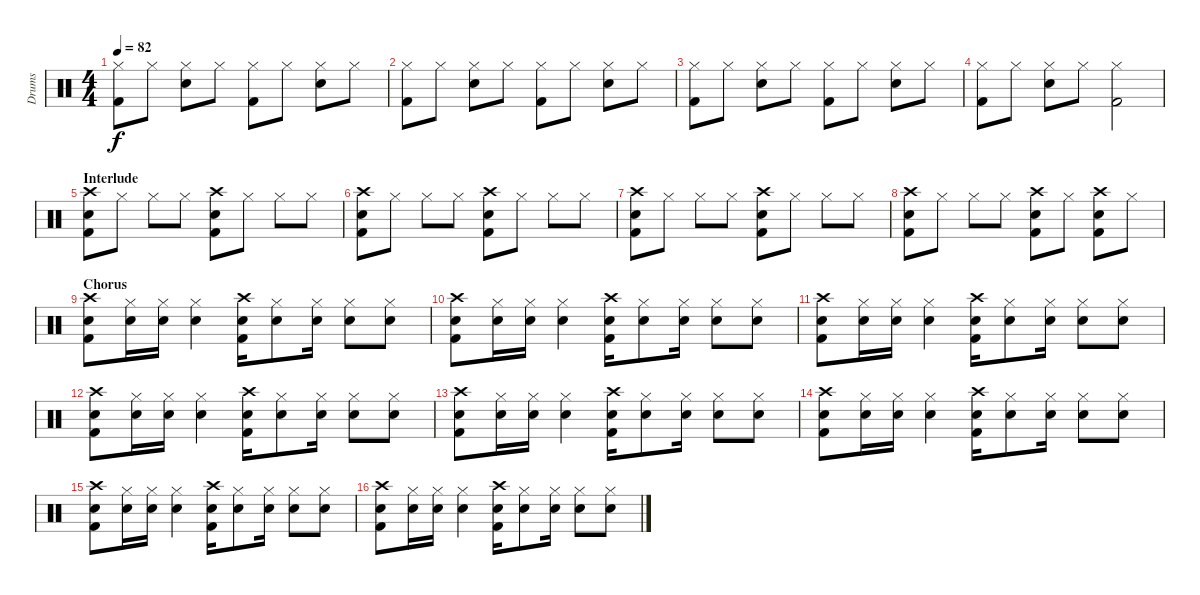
\track ("Drums" "Drums") {instrument percussion}
\staff {score}
\articulation defaults
\ts (4 4)
\tempo 82
\clef neutral
\ks c
("Hi-Hat (closed)" "Kick (hit) 2").8{dy f} "Hi-Hat (closed)".8 ("Hi-Hat (closed)" "Snare (hit) 2").8 "Hi-Hat (closed)".8 ("Hi-Hat (closed)" "Kick (hit) 2").8 "Hi-Hat (closed)".8 ("Hi-Hat (closed)" "Snare (hit) 2").8 "Hi-Hat (closed)".8 |
("Hi-Hat (closed)" "Kick (hit) 2").8 "Hi-Hat (closed)".8 ("Hi-Hat (closed)" "Snare (hit) 2").8 "Hi-Hat (closed)".8 ("Hi-Hat (closed)" "Kick (hit) 2").8 "Hi-Hat (closed)".8 ("Hi-Hat (closed)" "Snare (hit) 2").8 "Hi-Hat (closed)".8 |
("Hi-Hat (closed)" "Kick (hit) 2").8 "Hi-Hat (closed)".8 ("Hi-Hat (closed)" "Snare (hit) 2").8 "Hi-Hat (closed)".8 ("Hi-Hat (closed)" "Kick (hit) 2").8 "Hi-Hat (closed)".8 ("Hi-Hat (closed)" "Snare (hit) 2").8 "Hi-Hat (closed)".8 |
("Hi-Hat (closed)" "Kick (hit) 2").8 "Hi-Hat (closed)".8 ("Hi-Hat (closed)" "Snare (hit) 2").8 "Hi-Hat (closed)".8 ("Hi-Hat (closed)" "Kick (hit) 2").2 |
\section ("" "Interlude")
("Crash high (hit)" "Snare (hit) 2" "Kick (hit) 2").8 "Hi-Hat (closed)".8 "Hi-Hat (closed)".8 "Hi-Hat (closed)".8 ("Crash high (hit)" "Snare (hit) 2" "Kick (hit) 2").8 "Hi-Hat (closed)".8 "Hi-Hat (closed)".8 "Hi-Hat (closed)".8 |
("Crash high (hit)" "Snare (hit) 2" "Kick (hit) 2").8 "Hi-Hat (closed)".8 "Hi-Hat (closed)".8 "Hi-Hat (closed)".8 ("Crash high (hit)" "Snare (hit) 2" "Kick (hit) 2").8 "Hi-Hat (closed)".8 "Hi-Hat (closed)".8 "Hi-Hat (closed)".8 |
("Crash high (hit)" "Snare (hit) 2" "Kick (hit) 2").8 "Hi-Hat (closed)".8 "Hi-Hat (closed)".8 "Hi-Hat (closed)".8 ("Crash high (hit)" "Snare (hit) 2" "Kick (hit) 2").8 "Hi-Hat (closed)".8 "Hi-Hat (closed)".8 "Hi-Hat (closed)".8 |
("Crash high (hit)" "Snare (hit) 2" "Kick (hit) 2").8 "Hi-Hat (closed)".8 "Hi-Hat (closed)".8 "Hi-Hat (closed)".8 ("Crash high (hit)" "Snare (hit) 2" "Kick (hit) 2").8 "Hi-Hat (closed)".8 ("Crash high (hit)" "Snare (hit) 2" "Kick (hit) 2").8 "Hi-Hat (closed)".8 |
\section ("" "Chorus")
("Crash high (hit)" "Snare (hit) 2" "Kick (hit) 2").8 ("Hi-Hat (closed)" "Snare (hit) 2").16 ("Hi-Hat (closed)" "Snare (hit) 2").16 ("Hi-Hat (closed)" "Snare (hit) 2").4 ("Crash high (hit)" "Snare (hit) 2" "Kick (hit) 2").16 ("Hi-Hat (closed)" "Snare (hit) 2").8 ("Hi-Hat (closed)" "Snare (hit) 2").16 ("Hi-Hat (closed)" "Snare (hit) 2").8 ("Hi-Hat (closed)" "Snare (hit) 2").8 |
("Crash high (hit)" "Snare (hit) 2" "Kick (hit) 2").8 ("Hi-Hat (closed)" "Snare (hit) 2").16 ("Hi-Hat (closed)" "Snare (hit) 2").16 ("Hi-Hat (closed)" "Snare (hit) 2").4 ("Crash high (hit)" "Snare (hit) 2" "Kick (hit) 2").16 ("Hi-Hat (closed)" "Snare (hit) 2").8 ("Hi-Hat (closed)" "Snare (hit) 2").16 ("Hi-Hat (closed)" "Snare (hit) 2").8 ("Hi-Hat (closed)" "Snare (hit) 2").8 |
("Crash high (hit)" "Snare (hit) 2" "Kick (hit) 2").8 ("Hi-Hat (closed)" "Snare (hit) 2").16 ("Hi-Hat (closed)" "Snare (hit) 2").16 ("Hi-Hat (closed)" "Snare (hit) 2").4 ("Crash high (hit)" "Snare (hit) 2" "Kick (hit) 2").16 ("Hi-Hat (closed)" "Snare (hit) 2").8 ("Hi-Hat (closed)" "Snare (hit) 2").16 ("Hi-Hat (closed)" "Snare (hit) 2").8 ("Hi-Hat (closed)" "Snare (hit) 2").8 |
("Crash high (hit)" "Snare (hit) 2" "Kick (hit) 2").8 ("Hi-Hat (closed)" "Snare (hit) 2").16 ("Hi-Hat (closed)" "Snare (hit) 2").16 ("Hi-Hat (closed)" "Snare (hit) 2").4 ("Crash high (hit)" "Snare (hit) 2" "Kick (hit) 2").16 ("Hi-Hat (closed)" "Snare (hit) 2").8 ("Hi-Hat (closed)" "Snare (hit) 2").16 ("Hi-Hat (closed)" "Snare (hit) 2").8 ("Hi-Hat (closed)" "Snare (hit) 2").8 |
("Crash high (hit)" "Snare (hit) 2" "Kick (hit) 2").8 ("Hi-Hat (closed)" "Snare (hit) 2").16 ("Hi-Hat (closed)" "Snare (hit) 2").16 ("Hi-Hat (closed)" "Snare (hit) 2").4 ("Crash high (hit)" "Snare (hit) 2" "Kick (hit) 2").16 ("Hi-Hat (closed)" "Snare (hit) 2").8 ("Hi-Hat (closed)" "Snare (hit) 2").16 ("Hi-Hat (closed)" "Snare (hit) 2").8 ("Hi-Hat (closed)" "Snare (hit) 2").8 |
("Crash high (hit)" "Snare (hit) 2" "Kick (hit) 2").8 ("Hi-Hat (closed)" "Snare (hit) 2").16 ("Hi-Hat (closed)" "Snare (hit) 2").16 ("Hi-Hat (closed)" "Snare (hit) 2").4 ("Crash high (hit)" "Snare (hit) 2" "Kick (hit) 2").16 ("Hi-Hat (closed)" "Snare (hit) 2").8 ("Hi-Hat (closed)" "Snare (hit) 2").16 ("Hi-Hat (closed)" "Snare (hit) 2").8 ("Hi-Hat (closed)" "Snare (hit) 2").8 |
("Crash high (hit)" "Snare (hit) 2" "Kick (hit) 2").8 ("Hi-Hat (closed)" "Snare (hit) 2").16 ("Hi-Hat (closed)" "Snare (hit) 2").16 ("Hi-Hat (closed)" "Snare (hit) 2").4 ("Crash high (hit)" "Snare (hit) 2" "Kick (hit) 2").16 ("Hi-Hat (closed)" "Snare (hit) 2").8 ("Hi-Hat (closed)" "Snare (hit) 2").16 ("Hi-Hat (closed)" "Snare (hit) 2").8 ("Hi-Hat (closed)" "Snare (hit) 2").8 |
("Crash high (hit)" "Snare (hit) 2" "Kick (hit) 2").8 ("Hi-Hat (closed)" "Snare (hit) 2").16 ("Hi-Hat (closed)" "Snare (hit) 2").16 ("Hi-Hat (closed)" "Snare (hit) 2").4 ("Crash high (hit)" "Snare (hit) 2" "Kick (hit) 2").16 ("Hi-Hat (closed)" "Snare (hit) 2").8 ("Hi-Hat (closed)" "Snare (hit) 2").16 ("Hi-Hat (closed)" "Snare (hit) 2").8 ("Hi-Hat (closed)" "Snare (hit) 2").8
